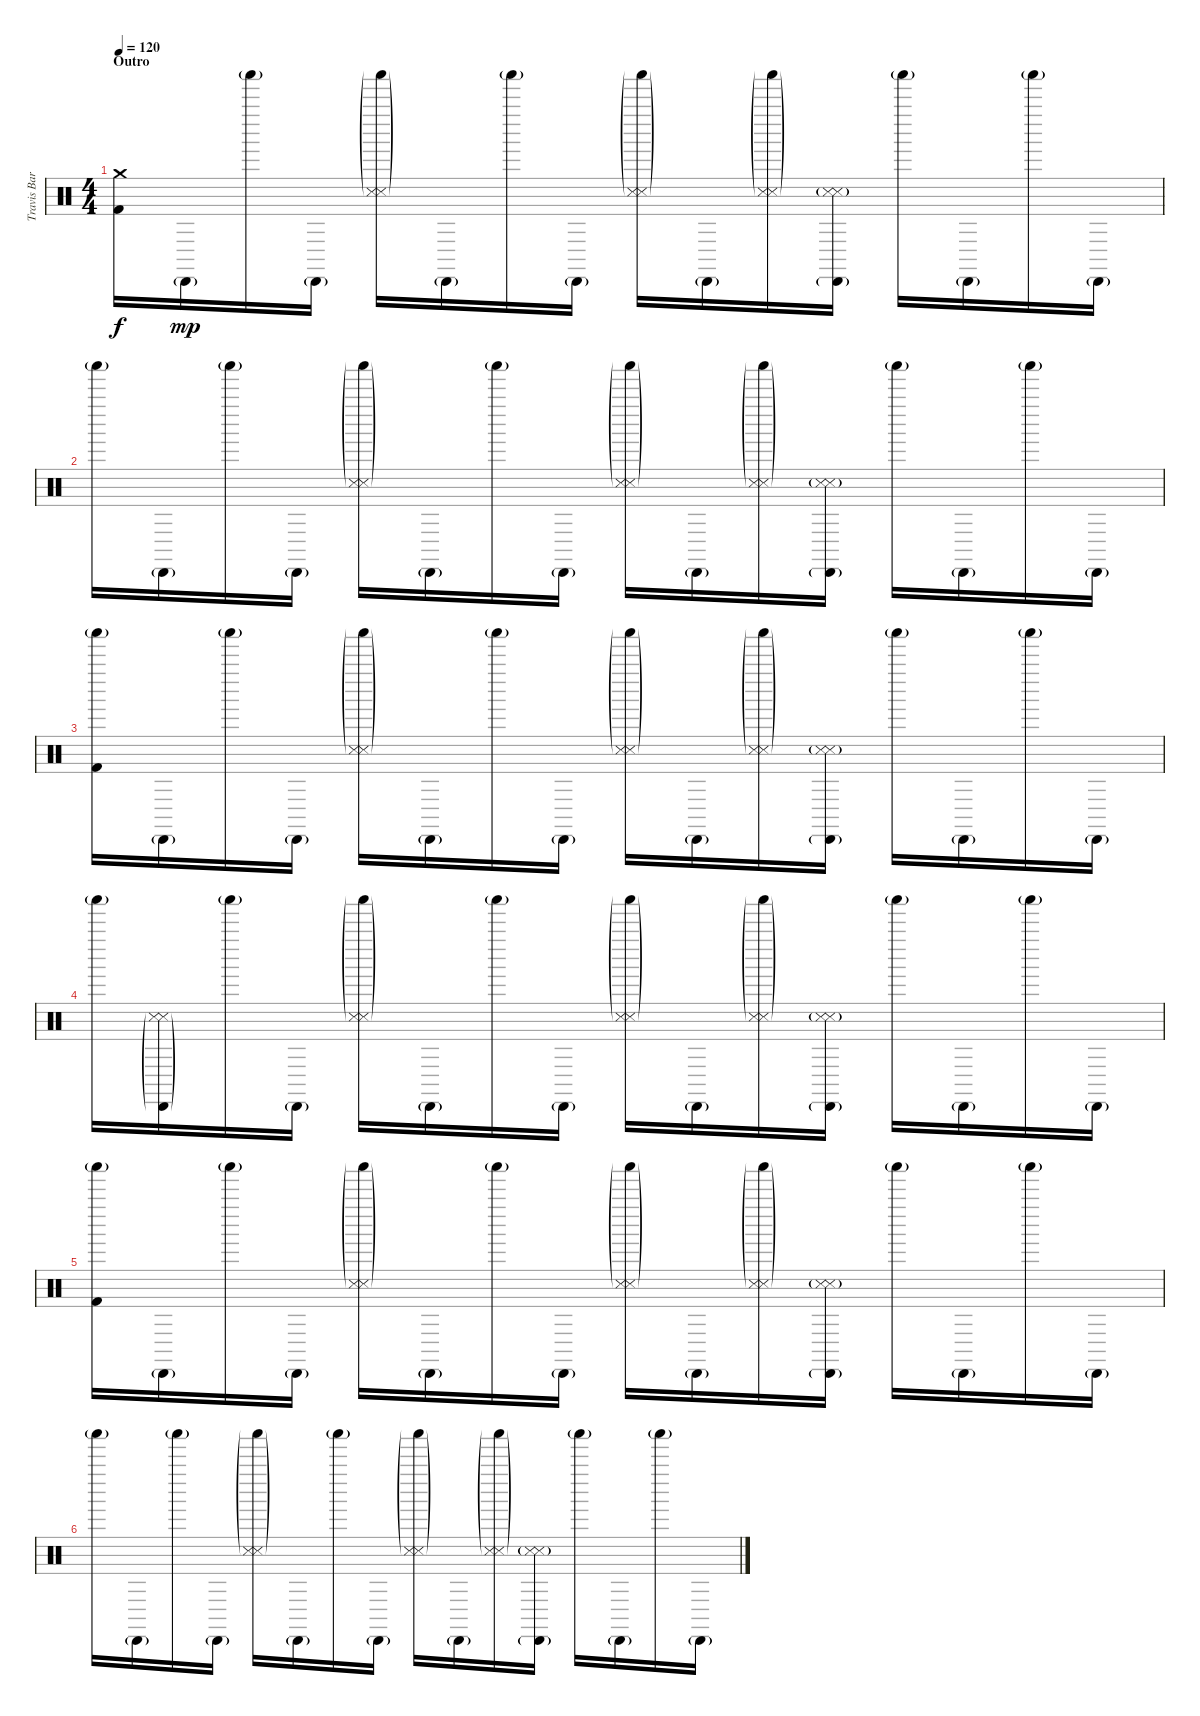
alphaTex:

\track ("Travis Barker - Drums" "Travis Bar") {instrument percussion}
\staff {score}
\articulation defaults
\ts (4 4)
\section ("" "Outro")
\tempo 120
\clef neutral
\ks c
("Crash medium (hit)" "Kick (hit) 2").16{dy f} "Cabasa (hit)"{g}.16{dy mp} "Shaker (hit)"{g}.16 "Cabasa (hit)"{g}.16 ("Shaker (hit)"{g} "Snare (side stick) 3"{g} "Metronome (hit)"{g}).16 "Cabasa (hit)"{g}.16 "Shaker (hit)"{g}.16 "Cabasa (hit)"{g}.16 ("Shaker (hit)"{g} "Snare (side stick) 3"{g} "Metronome (hit)"{g}).16 "Cabasa (hit)"{g}.16 ("Shaker (hit)"{g} "Snare (side stick) 3"{g} "Metronome (hit)"{g}).16 ("Cabasa (hit)"{g} "Snare (side stick) 3"{g} "Metronome (hit)").16 "Shaker (hit)"{g}.16 "Cabasa (hit)"{g}.16 "Shaker (hit)"{g}.16 "Cabasa (hit)"{g}.16 |
"Shaker (hit)"{g}.16 "Cabasa (hit)"{g}.16 "Shaker (hit)"{g}.16 "Cabasa (hit)"{g}.16 ("Shaker (hit)"{g} "Snare (side stick) 3"{g} "Metronome (hit)"{g}).16 "Cabasa (hit)"{g}.16 "Shaker (hit)"{g}.16 "Cabasa (hit)"{g}.16 ("Shaker (hit)"{g} "Snare (side stick) 3"{g} "Metronome (hit)"{g}).16 "Cabasa (hit)"{g}.16 ("Shaker (hit)"{g} "Snare (side stick) 3"{g} "Metronome (hit)"{g}).16 ("Cabasa (hit)"{g} "Snare (side stick) 3"{g} "Metronome (hit)").16 "Shaker (hit)"{g}.16 "Cabasa (hit)"{g}.16 "Shaker (hit)"{g}.16 "Cabasa (hit)"{g}.16 |
("Shaker (hit)"{g} "Kick (hit) 2").16 "Cabasa (hit)"{g}.16 "Shaker (hit)"{g}.16 "Cabasa (hit)"{g}.16 ("Shaker (hit)"{g} "Snare (side stick) 3"{g} "Metronome (hit)"{g}).16 "Cabasa (hit)"{g}.16 "Shaker (hit)"{g}.16 "Cabasa (hit)"{g}.16 ("Shaker (hit)"{g} "Snare (side stick) 3"{g} "Metronome (hit)"{g}).16 "Cabasa (hit)"{g}.16 ("Shaker (hit)"{g} "Snare (side stick) 3"{g} "Metronome (hit)"{g}).16 ("Cabasa (hit)"{g} "Snare (side stick) 3"{g} "Metronome (hit)").16 "Shaker (hit)"{g}.16 "Cabasa (hit)"{g}.16 "Shaker (hit)"{g}.16 "Cabasa (hit)"{g}.16 |
"Shaker (hit)"{g}.16 ("Cabasa (hit)"{g} "Snare (side stick) 3"{g} "Metronome (hit)"{g}).16 "Shaker (hit)"{g}.16 "Cabasa (hit)"{g}.16 ("Shaker (hit)"{g} "Snare (side stick) 3"{g} "Metronome (hit)"{g}).16 "Cabasa (hit)"{g}.16 "Shaker (hit)"{g}.16 "Cabasa (hit)"{g}.16 ("Shaker (hit)"{g} "Snare (side stick) 3"{g} "Metronome (hit)"{g}).16 "Cabasa (hit)"{g}.16 ("Shaker (hit)"{g} "Snare (side stick) 3"{g} "Metronome (hit)"{g}).16 ("Cabasa (hit)"{g} "Snare (side stick) 3"{g} "Metronome (hit)").16 "Shaker (hit)"{g}.16 "Cabasa (hit)"{g}.16 "Shaker (hit)"{g}.16 "Cabasa (hit)"{g}.16 |
("Shaker (hit)"{g} "Kick (hit) 2").16 "Cabasa (hit)"{g}.16 "Shaker (hit)"{g}.16 "Cabasa (hit)"{g}.16 ("Shaker (hit)"{g} "Snare (side stick) 3"{g} "Metronome (hit)"{g}).16 "Cabasa (hit)"{g}.16 "Shaker (hit)"{g}.16 "Cabasa (hit)"{g}.16 ("Shaker (hit)"{g} "Snare (side stick) 3"{g} "Metronome (hit)"{g}).16 "Cabasa (hit)"{g}.16 ("Shaker (hit)"{g} "Snare (side stick) 3"{g} "Metronome (hit)"{g}).16 ("Cabasa (hit)"{g} "Snare (side stick) 3"{g} "Metronome (hit)").16 "Shaker (hit)"{g}.16 "Cabasa (hit)"{g}.16 "Shaker (hit)"{g}.16 "Cabasa (hit)"{g}.16 |
"Shaker (hit)"{g}.16 "Cabasa (hit)"{g}.16 "Shaker (hit)"{g}.16 "Cabasa (hit)"{g}.16 ("Shaker (hit)"{g} "Snare (side stick) 3"{g} "Metronome (hit)"{g}).16 "Cabasa (hit)"{g}.16 "Shaker (hit)"{g}.16 "Cabasa (hit)"{g}.16 ("Shaker (hit)"{g} "Snare (side stick) 3"{g} "Metronome (hit)"{g}).16 "Cabasa (hit)"{g}.16 ("Shaker (hit)"{g} "Snare (side stick) 3"{g} "Metronome (hit)"{g}).16 ("Cabasa (hit)"{g} "Snare (side stick) 3"{g} "Metronome (hit)").16 "Shaker (hit)"{g}.16 "Cabasa (hit)"{g}.16 "Shaker (hit)"{g}.16 "Cabasa (hit)"{g}.16
